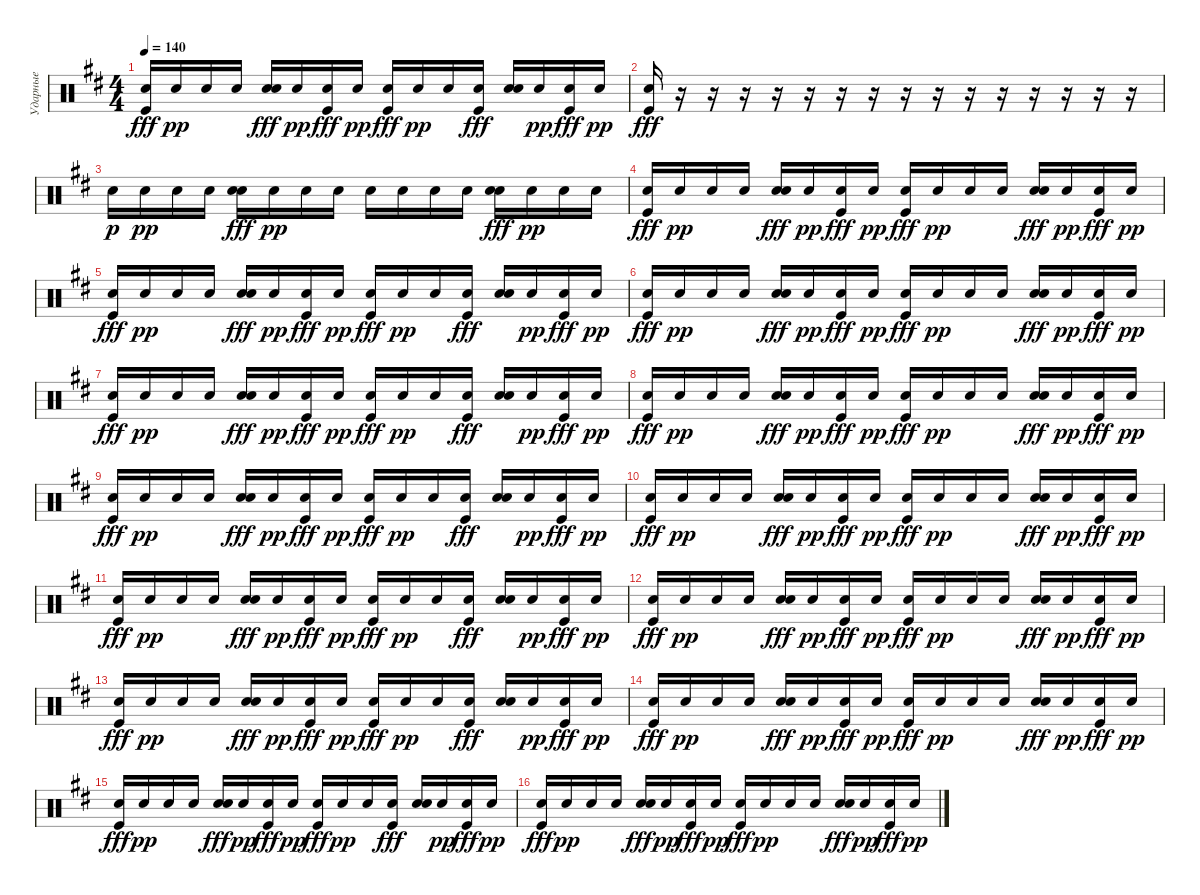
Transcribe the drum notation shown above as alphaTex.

\track ("Ударные" "Ударные") {instrument percussion}
\staff {score}
\articulation defaults
\ts (4 4)
\tempo 140
\clef neutral
\ks d
("Electric Snare (hit)" "Kick (hit)").16{dy fff} "Electric Snare (hit)".16{dy pp} "Electric Snare (hit)".16 "Electric Snare (hit)".16 ("Electric Snare (hit)" "Electric Snare (hit)").16{dy fff} "Electric Snare (hit)".16{dy pp} ("Electric Snare (hit)" "Kick (hit)").16{dy fff} "Electric Snare (hit)".16{dy pp} ("Electric Snare (hit)" "Kick (hit)").16{dy fff} "Electric Snare (hit)".16{dy pp} "Electric Snare (hit)".16 ("Electric Snare (hit)" "Kick (hit)").16{dy fff} ("Electric Snare (hit)" "Electric Snare (hit)").16 "Electric Snare (hit)".16{dy pp} ("Electric Snare (hit)" "Kick (hit)").16{dy fff} "Electric Snare (hit)".16{dy pp} |
("Electric Snare (hit)" "Kick (hit)").16{dy fff} r.16 r.16 r.16 r.16 r.16 r.16 r.16 r.16 r.16 r.16 r.16 r.16 r.16 r.16 r.16 |
"Electric Snare (hit)".16{dy p} "Electric Snare (hit)".16{dy pp} "Electric Snare (hit)".16 "Electric Snare (hit)".16 ("Electric Snare (hit)" "Electric Snare (hit)").16{dy fff} "Electric Snare (hit)".16{dy pp} "Electric Snare (hit)".16 "Electric Snare (hit)".16 "Electric Snare (hit)".16 "Electric Snare (hit)".16 "Electric Snare (hit)".16 "Electric Snare (hit)".16 ("Electric Snare (hit)" "Electric Snare (hit)").16{dy fff} "Electric Snare (hit)".16{dy pp} "Electric Snare (hit)".16 "Electric Snare (hit)".16 |
("Electric Snare (hit)" "Kick (hit)").16{dy fff} "Electric Snare (hit)".16{dy pp} "Electric Snare (hit)".16 "Electric Snare (hit)".16 ("Electric Snare (hit)" "Electric Snare (hit)").16{dy fff} "Electric Snare (hit)".16{dy pp} ("Electric Snare (hit)" "Kick (hit)").16{dy fff} "Electric Snare (hit)".16{dy pp} ("Electric Snare (hit)" "Kick (hit)").16{dy fff} "Electric Snare (hit)".16{dy pp} "Electric Snare (hit)".16 "Electric Snare (hit)".16 ("Electric Snare (hit)" "Electric Snare (hit)").16{dy fff} "Electric Snare (hit)".16{dy pp} ("Electric Snare (hit)" "Kick (hit)").16{dy fff} "Electric Snare (hit)".16{dy pp} |
("Electric Snare (hit)" "Kick (hit)").16{dy fff} "Electric Snare (hit)".16{dy pp} "Electric Snare (hit)".16 "Electric Snare (hit)".16 ("Electric Snare (hit)" "Electric Snare (hit)").16{dy fff} "Electric Snare (hit)".16{dy pp} ("Electric Snare (hit)" "Kick (hit)").16{dy fff} "Electric Snare (hit)".16{dy pp} ("Electric Snare (hit)" "Kick (hit)").16{dy fff} "Electric Snare (hit)".16{dy pp} "Electric Snare (hit)".16 ("Electric Snare (hit)" "Kick (hit)").16{dy fff} ("Electric Snare (hit)" "Electric Snare (hit)").16 "Electric Snare (hit)".16{dy pp} ("Electric Snare (hit)" "Kick (hit)").16{dy fff} "Electric Snare (hit)".16{dy pp} |
("Electric Snare (hit)" "Kick (hit)").16{dy fff} "Electric Snare (hit)".16{dy pp} "Electric Snare (hit)".16 "Electric Snare (hit)".16 ("Electric Snare (hit)" "Electric Snare (hit)").16{dy fff} "Electric Snare (hit)".16{dy pp} ("Electric Snare (hit)" "Kick (hit)").16{dy fff} "Electric Snare (hit)".16{dy pp} ("Electric Snare (hit)" "Kick (hit)").16{dy fff} "Electric Snare (hit)".16{dy pp} "Electric Snare (hit)".16 "Electric Snare (hit)".16 ("Electric Snare (hit)" "Electric Snare (hit)").16{dy fff} "Electric Snare (hit)".16{dy pp} ("Electric Snare (hit)" "Kick (hit)").16{dy fff} "Electric Snare (hit)".16{dy pp} |
("Electric Snare (hit)" "Kick (hit)").16{dy fff} "Electric Snare (hit)".16{dy pp} "Electric Snare (hit)".16 "Electric Snare (hit)".16 ("Electric Snare (hit)" "Electric Snare (hit)").16{dy fff} "Electric Snare (hit)".16{dy pp} ("Electric Snare (hit)" "Kick (hit)").16{dy fff} "Electric Snare (hit)".16{dy pp} ("Electric Snare (hit)" "Kick (hit)").16{dy fff} "Electric Snare (hit)".16{dy pp} "Electric Snare (hit)".16 ("Electric Snare (hit)" "Kick (hit)").16{dy fff} ("Electric Snare (hit)" "Electric Snare (hit)").16 "Electric Snare (hit)".16{dy pp} ("Electric Snare (hit)" "Kick (hit)").16{dy fff} "Electric Snare (hit)".16{dy pp} |
("Electric Snare (hit)" "Kick (hit)").16{dy fff} "Electric Snare (hit)".16{dy pp} "Electric Snare (hit)".16 "Electric Snare (hit)".16 ("Electric Snare (hit)" "Electric Snare (hit)").16{dy fff} "Electric Snare (hit)".16{dy pp} ("Electric Snare (hit)" "Kick (hit)").16{dy fff} "Electric Snare (hit)".16{dy pp} ("Electric Snare (hit)" "Kick (hit)").16{dy fff} "Electric Snare (hit)".16{dy pp} "Electric Snare (hit)".16 "Electric Snare (hit)".16 ("Electric Snare (hit)" "Electric Snare (hit)").16{dy fff} "Electric Snare (hit)".16{dy pp} ("Electric Snare (hit)" "Kick (hit)").16{dy fff} "Electric Snare (hit)".16{dy pp} |
("Electric Snare (hit)" "Kick (hit)").16{dy fff} "Electric Snare (hit)".16{dy pp} "Electric Snare (hit)".16 "Electric Snare (hit)".16 ("Electric Snare (hit)" "Electric Snare (hit)").16{dy fff} "Electric Snare (hit)".16{dy pp} ("Electric Snare (hit)" "Kick (hit)").16{dy fff} "Electric Snare (hit)".16{dy pp} ("Electric Snare (hit)" "Kick (hit)").16{dy fff} "Electric Snare (hit)".16{dy pp} "Electric Snare (hit)".16 ("Electric Snare (hit)" "Kick (hit)").16{dy fff} ("Electric Snare (hit)" "Electric Snare (hit)").16 "Electric Snare (hit)".16{dy pp} ("Electric Snare (hit)" "Kick (hit)").16{dy fff} "Electric Snare (hit)".16{dy pp} |
("Electric Snare (hit)" "Kick (hit)").16{dy fff} "Electric Snare (hit)".16{dy pp} "Electric Snare (hit)".16 "Electric Snare (hit)".16 ("Electric Snare (hit)" "Electric Snare (hit)").16{dy fff} "Electric Snare (hit)".16{dy pp} ("Electric Snare (hit)" "Kick (hit)").16{dy fff} "Electric Snare (hit)".16{dy pp} ("Electric Snare (hit)" "Kick (hit)").16{dy fff} "Electric Snare (hit)".16{dy pp} "Electric Snare (hit)".16 "Electric Snare (hit)".16 ("Electric Snare (hit)" "Electric Snare (hit)").16{dy fff} "Electric Snare (hit)".16{dy pp} ("Electric Snare (hit)" "Kick (hit)").16{dy fff} "Electric Snare (hit)".16{dy pp} |
("Electric Snare (hit)" "Kick (hit)").16{dy fff} "Electric Snare (hit)".16{dy pp} "Electric Snare (hit)".16 "Electric Snare (hit)".16 ("Electric Snare (hit)" "Electric Snare (hit)").16{dy fff} "Electric Snare (hit)".16{dy pp} ("Electric Snare (hit)" "Kick (hit)").16{dy fff} "Electric Snare (hit)".16{dy pp} ("Electric Snare (hit)" "Kick (hit)").16{dy fff} "Electric Snare (hit)".16{dy pp} "Electric Snare (hit)".16 ("Electric Snare (hit)" "Kick (hit)").16{dy fff} ("Electric Snare (hit)" "Electric Snare (hit)").16 "Electric Snare (hit)".16{dy pp} ("Electric Snare (hit)" "Kick (hit)").16{dy fff} "Electric Snare (hit)".16{dy pp} |
("Electric Snare (hit)" "Kick (hit)").16{dy fff} "Electric Snare (hit)".16{dy pp} "Electric Snare (hit)".16 "Electric Snare (hit)".16 ("Electric Snare (hit)" "Electric Snare (hit)").16{dy fff} "Electric Snare (hit)".16{dy pp} ("Electric Snare (hit)" "Kick (hit)").16{dy fff} "Electric Snare (hit)".16{dy pp} ("Electric Snare (hit)" "Kick (hit)").16{dy fff} "Electric Snare (hit)".16{dy pp} "Electric Snare (hit)".16 "Electric Snare (hit)".16 ("Electric Snare (hit)" "Electric Snare (hit)").16{dy fff} "Electric Snare (hit)".16{dy pp} ("Electric Snare (hit)" "Kick (hit)").16{dy fff} "Electric Snare (hit)".16{dy pp} |
("Electric Snare (hit)" "Kick (hit)").16{dy fff} "Electric Snare (hit)".16{dy pp} "Electric Snare (hit)".16 "Electric Snare (hit)".16 ("Electric Snare (hit)" "Electric Snare (hit)").16{dy fff} "Electric Snare (hit)".16{dy pp} ("Electric Snare (hit)" "Kick (hit)").16{dy fff} "Electric Snare (hit)".16{dy pp} ("Electric Snare (hit)" "Kick (hit)").16{dy fff} "Electric Snare (hit)".16{dy pp} "Electric Snare (hit)".16 ("Electric Snare (hit)" "Kick (hit)").16{dy fff} ("Electric Snare (hit)" "Electric Snare (hit)").16 "Electric Snare (hit)".16{dy pp} ("Electric Snare (hit)" "Kick (hit)").16{dy fff} "Electric Snare (hit)".16{dy pp} |
("Electric Snare (hit)" "Kick (hit)").16{dy fff} "Electric Snare (hit)".16{dy pp} "Electric Snare (hit)".16 "Electric Snare (hit)".16 ("Electric Snare (hit)" "Electric Snare (hit)").16{dy fff} "Electric Snare (hit)".16{dy pp} ("Electric Snare (hit)" "Kick (hit)").16{dy fff} "Electric Snare (hit)".16{dy pp} ("Electric Snare (hit)" "Kick (hit)").16{dy fff} "Electric Snare (hit)".16{dy pp} "Electric Snare (hit)".16 "Electric Snare (hit)".16 ("Electric Snare (hit)" "Electric Snare (hit)").16{dy fff} "Electric Snare (hit)".16{dy pp} ("Electric Snare (hit)" "Kick (hit)").16{dy fff} "Electric Snare (hit)".16{dy pp} |
("Electric Snare (hit)" "Kick (hit)").16{dy fff} "Electric Snare (hit)".16{dy pp} "Electric Snare (hit)".16 "Electric Snare (hit)".16 ("Electric Snare (hit)" "Electric Snare (hit)").16{dy fff} "Electric Snare (hit)".16{dy pp} ("Electric Snare (hit)" "Kick (hit)").16{dy fff} "Electric Snare (hit)".16{dy pp} ("Electric Snare (hit)" "Kick (hit)").16{dy fff} "Electric Snare (hit)".16{dy pp} "Electric Snare (hit)".16 ("Electric Snare (hit)" "Kick (hit)").16{dy fff} ("Electric Snare (hit)" "Electric Snare (hit)").16 "Electric Snare (hit)".16{dy pp} ("Electric Snare (hit)" "Kick (hit)").16{dy fff} "Electric Snare (hit)".16{dy pp} |
("Electric Snare (hit)" "Kick (hit)").16{dy fff} "Electric Snare (hit)".16{dy pp} "Electric Snare (hit)".16 "Electric Snare (hit)".16 ("Electric Snare (hit)" "Electric Snare (hit)").16{dy fff} "Electric Snare (hit)".16{dy pp} ("Electric Snare (hit)" "Kick (hit)").16{dy fff} "Electric Snare (hit)".16{dy pp} ("Electric Snare (hit)" "Kick (hit)").16{dy fff} "Electric Snare (hit)".16{dy pp} "Electric Snare (hit)".16 "Electric Snare (hit)".16 ("Electric Snare (hit)" "Electric Snare (hit)").16{dy fff} "Electric Snare (hit)".16{dy pp} ("Electric Snare (hit)" "Kick (hit)").16{dy fff} "Electric Snare (hit)".16{dy pp}
